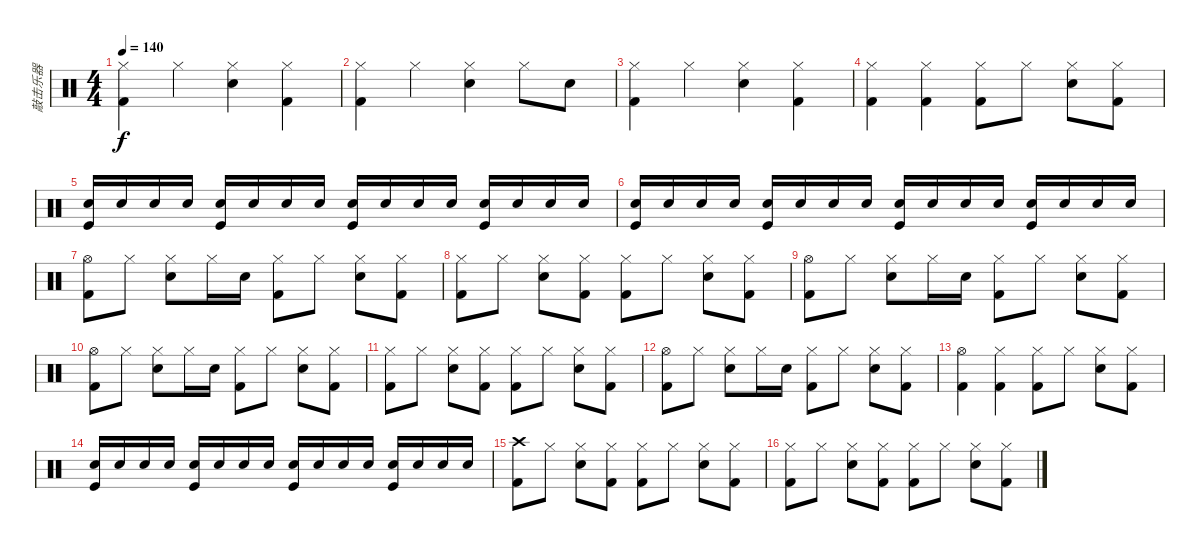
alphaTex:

\track ("敲击乐器" "敲击乐器") {instrument percussion}
\staff {score}
\articulation defaults
\ts (4 4)
\tempo 140
\clef neutral
\ks c
("Hi-Hat (closed)" "Kick (hit) 2").4{dy f} "Hi-Hat (closed)".4 ("Hi-Hat (closed)" "Snare (hit) 2").4 ("Hi-Hat (closed)" "Kick (hit) 2").4 |
("Hi-Hat (closed)" "Kick (hit) 2").4 "Hi-Hat (closed)".4 ("Hi-Hat (closed)" "Snare (hit) 2").4 "Hi-Hat (closed)".8 "Snare (hit) 2".8 |
("Hi-Hat (closed)" "Kick (hit) 2").4 "Hi-Hat (closed)".4 ("Hi-Hat (closed)" "Snare (hit) 2").4 ("Hi-Hat (closed)" "Kick (hit) 2").4 |
("Hi-Hat (closed)" "Kick (hit) 2").4 ("Hi-Hat (closed)" "Kick (hit) 2").4 ("Hi-Hat (closed)" "Kick (hit) 2").8 "Hi-Hat (closed)".8 ("Hi-Hat (closed)" "Snare (hit) 2").8 ("Hi-Hat (closed)" "Kick (hit) 2").8 |
("Snare (hit) 2" "Kick (hit)").16 "Snare (hit) 2".16 "Snare (hit) 2".16 "Snare (hit) 2".16 ("Snare (hit) 2" "Kick (hit)").16 "Snare (hit) 2".16 "Snare (hit) 2".16 "Snare (hit) 2".16 ("Snare (hit) 2" "Kick (hit)").16 "Snare (hit) 2".16 "Snare (hit) 2".16 "Snare (hit) 2".16 ("Snare (hit) 2" "Kick (hit)").16 "Snare (hit) 2".16 "Snare (hit) 2".16 "Snare (hit) 2".16 |
("Snare (hit) 2" "Kick (hit)").16 "Snare (hit) 2".16 "Snare (hit) 2".16 "Snare (hit) 2".16 ("Snare (hit) 2" "Kick (hit)").16 "Snare (hit) 2".16 "Snare (hit) 2".16 "Snare (hit) 2".16 ("Snare (hit) 2" "Kick (hit)").16 "Snare (hit) 2".16 "Snare (hit) 2".16 "Snare (hit) 2".16 ("Snare (hit) 2" "Kick (hit)").16 "Snare (hit) 2".16 "Snare (hit) 2".16 "Snare (hit) 2".16 |
("Hi-Hat (open)" "Kick (hit) 2").8 "Hi-Hat (closed)".8 ("Hi-Hat (closed)" "Snare (hit) 2").8 "Hi-Hat (closed)".16 "Snare (hit) 2".16 ("Hi-Hat (closed)" "Kick (hit) 2").8 "Hi-Hat (closed)".8 ("Hi-Hat (closed)" "Snare (hit) 2").8 ("Hi-Hat (closed)" "Kick (hit) 2").8 |
("Hi-Hat (closed)" "Kick (hit) 2").8 "Hi-Hat (closed)".8 ("Hi-Hat (closed)" "Snare (hit) 2").8 ("Hi-Hat (closed)" "Kick (hit) 2").8 ("Hi-Hat (closed)" "Kick (hit) 2").8 "Hi-Hat (closed)".8 ("Hi-Hat (closed)" "Snare (hit) 2").8 ("Hi-Hat (closed)" "Kick (hit) 2").8 |
("Hi-Hat (open)" "Kick (hit) 2").8 "Hi-Hat (closed)".8 ("Hi-Hat (closed)" "Snare (hit) 2").8 "Hi-Hat (closed)".16 "Snare (hit) 2".16 ("Hi-Hat (closed)" "Kick (hit) 2").8 "Hi-Hat (closed)".8 ("Hi-Hat (closed)" "Snare (hit) 2").8 ("Hi-Hat (closed)" "Kick (hit) 2").8 |
("Hi-Hat (open)" "Kick (hit) 2").8 "Hi-Hat (closed)".8 ("Hi-Hat (closed)" "Snare (hit) 2").8 "Hi-Hat (closed)".16 "Snare (hit) 2".16 ("Hi-Hat (closed)" "Kick (hit) 2").8 "Hi-Hat (closed)".8 ("Hi-Hat (closed)" "Snare (hit) 2").8 ("Hi-Hat (closed)" "Kick (hit) 2").8 |
("Hi-Hat (closed)" "Kick (hit) 2").8 "Hi-Hat (closed)".8 ("Hi-Hat (closed)" "Snare (hit) 2").8 ("Hi-Hat (closed)" "Kick (hit) 2").8 ("Hi-Hat (closed)" "Kick (hit) 2").8 "Hi-Hat (closed)".8 ("Hi-Hat (closed)" "Snare (hit) 2").8 ("Hi-Hat (closed)" "Kick (hit) 2").8 |
("Hi-Hat (open)" "Kick (hit) 2").8 "Hi-Hat (closed)".8 ("Hi-Hat (closed)" "Snare (hit) 2").8 "Hi-Hat (closed)".16 "Snare (hit) 2".16 ("Hi-Hat (closed)" "Kick (hit) 2").8 "Hi-Hat (closed)".8 ("Hi-Hat (closed)" "Snare (hit) 2").8 ("Hi-Hat (closed)" "Kick (hit) 2").8 |
("Hi-Hat (open)" "Kick (hit) 2").4 ("Hi-Hat (closed)" "Kick (hit) 2").4 ("Hi-Hat (closed)" "Kick (hit) 2").8 "Hi-Hat (closed)".8 ("Hi-Hat (closed)" "Snare (hit) 2").8 ("Hi-Hat (closed)" "Kick (hit) 2").8 |
("Snare (hit) 2" "Kick (hit)").16 "Snare (hit) 2".16 "Snare (hit) 2".16 "Snare (hit) 2".16 ("Snare (hit) 2" "Kick (hit)").16 "Snare (hit) 2".16 "Snare (hit) 2".16 "Snare (hit) 2".16 ("Snare (hit) 2" "Kick (hit)").16 "Snare (hit) 2".16 "Snare (hit) 2".16 "Snare (hit) 2".16 ("Snare (hit) 2" "Kick (hit)").16 "Snare (hit) 2".16 "Snare (hit) 2".16 "Snare (hit) 2".16 |
("Crash high (hit)" "Kick (hit) 2").8 "Hi-Hat (closed)".8 ("Hi-Hat (closed)" "Snare (hit) 2").8 ("Hi-Hat (closed)" "Kick (hit) 2").8 ("Hi-Hat (closed)" "Kick (hit) 2").8 "Hi-Hat (closed)".8 ("Hi-Hat (closed)" "Snare (hit) 2").8 ("Hi-Hat (closed)" "Kick (hit) 2").8 |
("Hi-Hat (closed)" "Kick (hit) 2").8 "Hi-Hat (closed)".8 ("Hi-Hat (closed)" "Snare (hit) 2").8 ("Hi-Hat (closed)" "Kick (hit) 2").8 ("Hi-Hat (closed)" "Kick (hit) 2").8 "Hi-Hat (closed)".8 ("Hi-Hat (closed)" "Snare (hit) 2").8 ("Hi-Hat (closed)" "Kick (hit) 2").8
